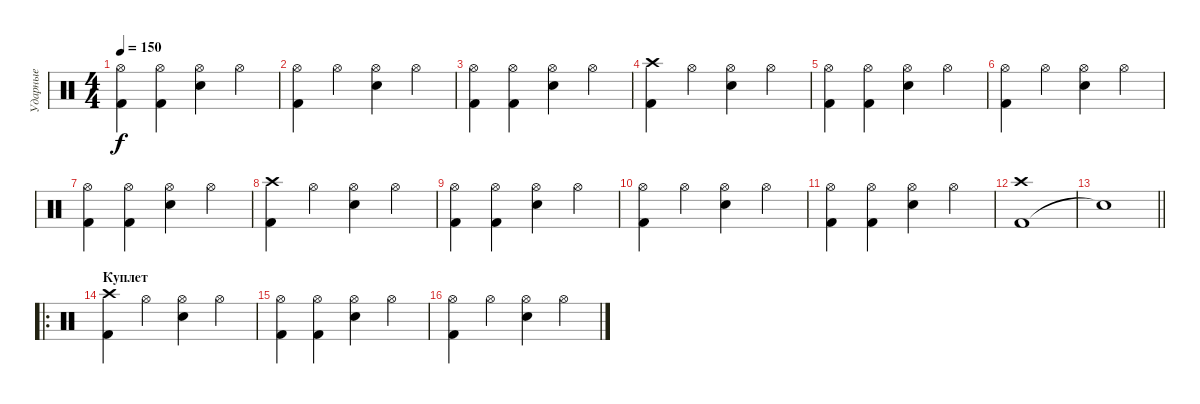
\track ("Ударные" "Ударные") {instrument percussion}
\staff {score}
\articulation defaults
\ts (4 4)
\tempo 150
\clef neutral
\ks c
("Kick (hit) 2" "Hi-Hat (open)").4{dy f} ("Kick (hit) 2" "Hi-Hat (open)").4 ("Electric Snare (hit)" "Hi-Hat (open)").4 "Hi-Hat (open)".4 |
("Kick (hit) 2" "Hi-Hat (open)").4 "Hi-Hat (open)".4 ("Electric Snare (hit)" "Hi-Hat (open)").4 "Hi-Hat (open)".4 |
("Kick (hit) 2" "Hi-Hat (open)").4 ("Kick (hit) 2" "Hi-Hat (open)").4 ("Electric Snare (hit)" "Hi-Hat (open)").4 "Hi-Hat (open)".4 |
("Kick (hit) 2" "Crash high (hit)").4 "Hi-Hat (open)".4 ("Electric Snare (hit)" "Hi-Hat (open)").4 "Hi-Hat (open)".4 |
("Kick (hit) 2" "Hi-Hat (open)").4 ("Kick (hit) 2" "Hi-Hat (open)").4 ("Electric Snare (hit)" "Hi-Hat (open)").4 "Hi-Hat (open)".4 |
("Kick (hit) 2" "Hi-Hat (open)").4 "Hi-Hat (open)".4 ("Electric Snare (hit)" "Hi-Hat (open)").4 "Hi-Hat (open)".4 |
("Kick (hit) 2" "Hi-Hat (open)").4 ("Kick (hit) 2" "Hi-Hat (open)").4 ("Electric Snare (hit)" "Hi-Hat (open)").4 "Hi-Hat (open)".4 |
("Kick (hit) 2" "Crash high (hit)").4 "Hi-Hat (open)".4 ("Electric Snare (hit)" "Hi-Hat (open)").4 "Hi-Hat (open)".4 |
("Kick (hit) 2" "Hi-Hat (open)").4 ("Kick (hit) 2" "Hi-Hat (open)").4 ("Electric Snare (hit)" "Hi-Hat (open)").4 "Hi-Hat (open)".4 |
("Kick (hit) 2" "Hi-Hat (open)").4 "Hi-Hat (open)".4 ("Electric Snare (hit)" "Hi-Hat (open)").4 "Hi-Hat (open)".4 |
("Kick (hit) 2" "Hi-Hat (open)").4 ("Kick (hit) 2" "Hi-Hat (open)").4 ("Electric Snare (hit)" "Hi-Hat (open)").4 "Hi-Hat (open)".4 |
("Kick (hit) 2" "Crash high (hit)").1 |
\barLineRight lightlight "Snare (hit)"{t}.1
|
\ro
\section ("" "Куплет")
("Kick (hit) 2" "Crash high (hit)").4 "Hi-Hat (open)".4 ("Electric Snare (hit)" "Hi-Hat (open)").4 "Hi-Hat (open)".4 |
("Kick (hit) 2" "Hi-Hat (open)").4 ("Kick (hit) 2" "Hi-Hat (open)").4 ("Electric Snare (hit)" "Hi-Hat (open)").4 "Hi-Hat (open)".4 |
("Kick (hit) 2" "Hi-Hat (open)").4 "Hi-Hat (open)".4 ("Electric Snare (hit)" "Hi-Hat (open)").4 "Hi-Hat (open)".4
